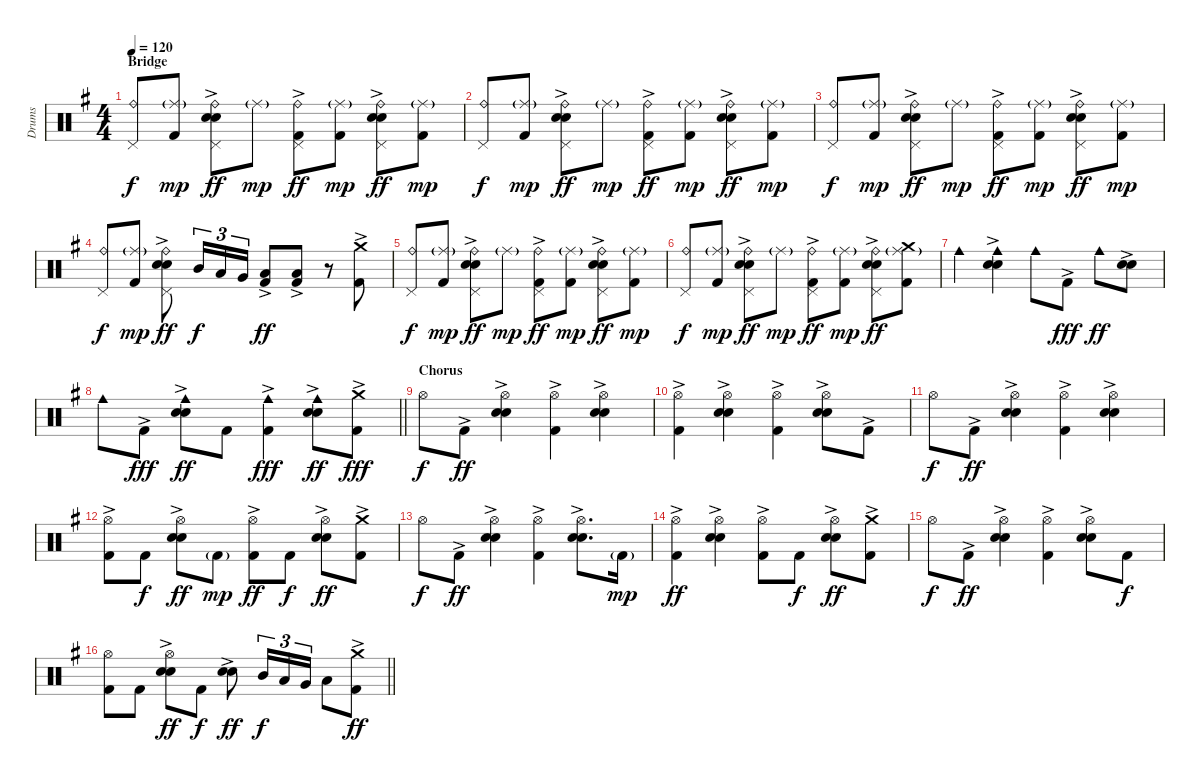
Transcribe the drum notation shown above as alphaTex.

\track ("Drums" "Drums") {instrument percussion}
\staff {score}
\articulation defaults
\ts (4 4)
\section ("" "Bridge")
\tempo 120
\clef neutral
\ks g
("Ride (bell)" "Pedal Hi-Hat (hit)").8{dy f} ("Ride (middle)"{g} "Kick (hit) 2").8{dy mp} ("Ride (bell)" "Pedal Hi-Hat (hit)" "Electric Snare (hit)"{ac} "Snare (hit) 2").8{dy ff} "Ride (middle)"{g}.8{dy mp} ("Ride (bell)" "Pedal Hi-Hat (hit)" "Kick (hit) 2"{ac}).8{dy ff} ("Ride (middle)"{g} "Kick (hit) 2").8{dy mp} ("Ride (bell)" "Pedal Hi-Hat (hit)" "Electric Snare (hit)"{ac} "Snare (hit) 2").8{dy ff} ("Ride (middle)"{g} "Kick (hit) 2").8{dy mp} |
("Ride (bell)" "Pedal Hi-Hat (hit)").8{dy f} ("Ride (middle)"{g} "Kick (hit) 2").8{dy mp} ("Ride (bell)" "Pedal Hi-Hat (hit)" "Electric Snare (hit)"{ac} "Snare (hit) 2").8{dy ff} "Ride (middle)"{g}.8{dy mp} ("Ride (bell)" "Pedal Hi-Hat (hit)" "Kick (hit) 2"{ac}).8{dy ff} ("Ride (middle)"{g} "Kick (hit) 2").8{dy mp} ("Ride (bell)" "Pedal Hi-Hat (hit)" "Electric Snare (hit)"{ac} "Snare (hit) 2").8{dy ff} ("Ride (middle)"{g} "Kick (hit) 2").8{dy mp} |
("Ride (bell)" "Pedal Hi-Hat (hit)").8{dy f} ("Ride (middle)"{g} "Kick (hit) 2").8{dy mp} ("Ride (bell)" "Pedal Hi-Hat (hit)" "Electric Snare (hit)"{ac} "Snare (hit) 2").8{dy ff} "Ride (middle)"{g}.8{dy mp} ("Ride (bell)" "Pedal Hi-Hat (hit)" "Kick (hit) 2"{ac}).8{dy ff} ("Ride (middle)"{g} "Kick (hit) 2").8{dy mp} ("Ride (bell)" "Pedal Hi-Hat (hit)" "Electric Snare (hit)"{ac} "Snare (hit) 2").8{dy ff} ("Ride (middle)"{g} "Kick (hit) 2").8{dy mp} |
("Ride (bell)" "Pedal Hi-Hat (hit)").8{dy f} ("Ride (middle)"{g} "Kick (hit) 2").8{dy mp} ("Ride (bell)" "Pedal Hi-Hat (hit)" "Electric Snare (hit)"{ac} "Snare (hit) 2").8{dy ff} "Mid Tom (hit)".16{tu (3 2) dy f} "Low Tom (hit)".16{tu (3 2)} "Very Low Tom (hit)".16{tu (3 2)} ("Low Floor Tom (hit)" "Kick (hit) 2"{ac}).8{dy ff} ("Low Floor Tom (hit)" "Kick (hit) 2"{ac}).8 r.8 ("Crash medium (hit)" "Kick (hit) 2"{ac}).8 |
("Ride (bell)" "Pedal Hi-Hat (hit)").8{dy f} ("Ride (middle)"{g} "Kick (hit) 2").8{dy mp} ("Ride (bell)" "Pedal Hi-Hat (hit)" "Electric Snare (hit)"{ac} "Snare (hit) 2").8{dy ff} "Ride (middle)"{g}.8{dy mp} ("Ride (bell)" "Pedal Hi-Hat (hit)" "Kick (hit) 2"{ac}).8{dy ff} ("Ride (middle)"{g} "Kick (hit) 2").8{dy mp} ("Ride (bell)" "Pedal Hi-Hat (hit)" "Electric Snare (hit)"{ac} "Snare (hit) 2").8{dy ff} ("Ride (middle)"{g} "Kick (hit) 2").8{dy mp} |
("Ride (bell)" "Pedal Hi-Hat (hit)").8{dy f} ("Ride (middle)"{g} "Kick (hit) 2").8{dy mp} ("Ride (bell)" "Pedal Hi-Hat (hit)" "Electric Snare (hit)"{ac} "Snare (hit) 2").8{dy ff} "Ride (middle)"{g}.8{dy mp} ("Ride (bell)" "Pedal Hi-Hat (hit)" "Kick (hit) 2"{ac}).8{dy ff} ("Ride (middle)"{g} "Kick (hit) 2").8{dy mp} ("Ride (bell)" "Pedal Hi-Hat (hit)" "Electric Snare (hit)"{ac} "Snare (hit) 2").8{dy ff} ("Ride (middle)"{g} "Crash medium (hit)" "Kick (hit) 2").8 |
"Cowbell medium (hit)".4 ("Cowbell medium (hit)" "Electric Snare (hit)"{ac} "Snare (hit) 2").4 "Cowbell medium (hit)".8 "Kick (hit) 2"{ac}.8{dy fff} "Cowbell medium (hit)".8{dy ff} ("Electric Snare (hit)"{ac} "Snare (hit) 2").8 |
\barLineRight lightlight "Cowbell medium (hit)".8 "Kick (hit) 2"{ac}.8{dy fff}
("Cowbell medium (hit)" "Electric Snare (hit)"{ac} "Snare (hit) 2").8{dy ff} "Kick (hit) 2".8 ("Cowbell medium (hit)" "Kick (hit) 2"{ac}).4{dy fff} ("Cowbell medium (hit)" "Electric Snare (hit)"{ac} "Snare (hit) 2").8{dy ff} ("Crash medium (hit)" "Kick (hit) 2"{ac}).8{dy fff} |
\section ("" "Chorus")
"Hi-Hat (open)".8{dy f} "Kick (hit) 2"{ac}.8{dy ff} ("Hi-Hat (open)" "Electric Snare (hit)"{ac} "Snare (hit) 2").4 ("Hi-Hat (open)" "Kick (hit) 2"{ac}).4 ("Hi-Hat (open)" "Electric Snare (hit)"{ac} "Snare (hit) 2").4 |
("Hi-Hat (open)" "Kick (hit) 2"{ac}).4 ("Hi-Hat (open)" "Electric Snare (hit)"{ac} "Snare (hit) 2").4 ("Hi-Hat (open)" "Kick (hit) 2"{ac}).4 ("Hi-Hat (open)" "Electric Snare (hit)"{ac} "Snare (hit) 2").8 "Kick (hit) 2"{ac}.8 |
"Hi-Hat (open)".8{dy f} "Kick (hit) 2"{ac}.8{dy ff} ("Hi-Hat (open)" "Electric Snare (hit)"{ac} "Snare (hit) 2").4 ("Hi-Hat (open)" "Kick (hit) 2"{ac}).4 ("Hi-Hat (open)" "Electric Snare (hit)"{ac} "Snare (hit) 2").4 |
("Hi-Hat (open)" "Kick (hit) 2"{ac}).8 "Kick (hit) 2".8{dy f} ("Hi-Hat (open)" "Electric Snare (hit)"{ac} "Snare (hit) 2").8{dy ff} "Kick (hit) 2"{g}.8{dy mp} ("Hi-Hat (open)" "Kick (hit) 2"{ac}).8{dy ff} "Kick (hit) 2".8{dy f} ("Hi-Hat (open)" "Electric Snare (hit)"{ac} "Snare (hit) 2").8{dy ff} ("Crash medium (hit)" "Kick (hit) 2"{ac}).8 |
"Hi-Hat (open)".8{dy f} "Kick (hit) 2"{ac}.8{dy ff} ("Hi-Hat (open)" "Electric Snare (hit)"{ac} "Snare (hit) 2").4 ("Hi-Hat (open)" "Kick (hit) 2"{ac}).4 ("Hi-Hat (open)" "Electric Snare (hit)"{ac} "Snare (hit) 2").8{d} "Kick (hit) 2"{g}.16{dy mp} |
("Hi-Hat (open)" "Kick (hit) 2"{ac}).4{dy ff} ("Hi-Hat (open)" "Electric Snare (hit)"{ac} "Snare (hit) 2").4 ("Hi-Hat (open)" "Kick (hit) 2"{ac}).8 "Kick (hit) 2".8{dy f} ("Hi-Hat (open)" "Electric Snare (hit)"{ac} "Snare (hit) 2").8{dy ff} ("Crash medium (hit)" "Kick (hit) 2"{ac}).8 |
"Hi-Hat (open)".8{dy f} "Kick (hit) 2"{ac}.8{dy ff} ("Hi-Hat (open)" "Electric Snare (hit)"{ac} "Snare (hit) 2").4 ("Hi-Hat (open)" "Kick (hit) 2"{ac}).4 ("Hi-Hat (open)" "Electric Snare (hit)"{ac} "Snare (hit) 2").8 "Kick (hit) 2".8{dy f} |
\barLineRight lightlight
("Hi-Hat (open)" "Kick (hit) 2").8 "Kick (hit) 2".8 ("Hi-Hat (open)" "Electric Snare (hit)"{ac} "Snare (hit) 2").8{dy ff} "Kick (hit) 2".8{dy f} ("Electric Snare (hit)"{ac} "Snare (hit) 2").8{dy ff} "Mid Tom (hit)".16{tu (3 2) dy f} "Low Tom (hit)".16{tu (3 2)} "Very Low Tom (hit)".16{tu (3 2)} "Low Floor Tom (hit)".8 ("Crash medium (hit)" "Kick (hit) 2"{ac}).8{dy ff}
